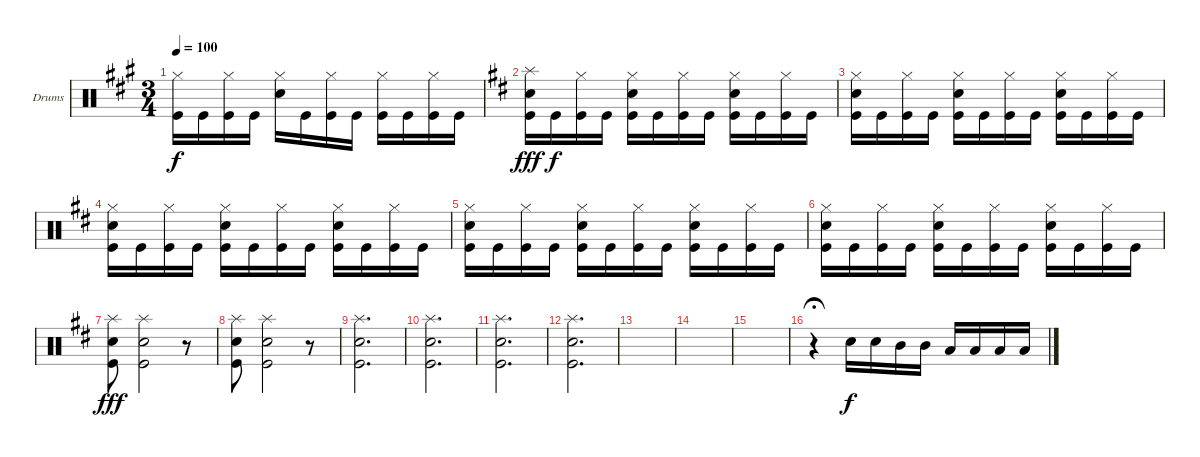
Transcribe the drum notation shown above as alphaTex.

\bracketExtendMode groupsimilarinstruments
\firstSystemTrackNameOrientation horizontal
\otherSystemsTrackNameOrientation horizontal
\track ("Drumkit" "Drums") {instrument percussion}
\staff {score}
\articulation defaults
\ts (3 4)
\tempo 100
\clef neutral
\scale
1.05801
\ks a
("Hi-Hat (closed)" "Kick (hit)").16{dy f} "Kick (hit)".16 ("Hi-Hat (closed)" "Kick (hit)").16 "Kick (hit)".16 ("Hi-Hat (closed)" "Snare (hit) 2").16 "Kick (hit)".16 ("Hi-Hat (closed)" "Kick (hit)").16 "Kick (hit)".16 ("Hi-Hat (closed)" "Kick (hit)").16 "Kick (hit)".16 ("Hi-Hat (closed)" "Kick (hit)").16 "Kick (hit)".16 |
\scale
0.941992
\ks d
("Splash (hit)" "Snare (hit) 2" "Kick (hit)").16{dy fff} "Kick (hit)".16{dy f} ("Hi-Hat (closed)" "Kick (hit)").16 "Kick (hit)".16 ("Hi-Hat (closed)" "Snare (hit) 2" "Kick (hit)").16 "Kick (hit)".16 ("Hi-Hat (closed)" "Kick (hit)").16 "Kick (hit)".16 ("Hi-Hat (closed)" "Snare (hit) 2" "Kick (hit)").16 "Kick (hit)".16 ("Hi-Hat (closed)" "Kick (hit)").16 "Kick (hit)".16 |
\scale
1.05801 ("Hi-Hat (closed)" "Snare (hit) 2" "Kick (hit)").16 "Kick (hit)".16 ("Hi-Hat (closed)" "Kick (hit)").16 "Kick (hit)".16 ("Hi-Hat (closed)" "Snare (hit) 2" "Kick (hit)").16 "Kick (hit)".16 ("Hi-Hat (closed)" "Kick (hit)").16 "Kick (hit)".16 ("Hi-Hat (closed)" "Snare (hit) 2" "Kick (hit)").16 "Kick (hit)".16 ("Hi-Hat (closed)" "Kick (hit)").16 "Kick (hit)".16 |
\scale
0.941992 ("Hi-Hat (closed)" "Snare (hit) 2" "Kick (hit)").16 "Kick (hit)".16 ("Hi-Hat (closed)" "Kick (hit)").16 "Kick (hit)".16 ("Hi-Hat (closed)" "Snare (hit) 2" "Kick (hit)").16 "Kick (hit)".16 ("Hi-Hat (closed)" "Kick (hit)").16 "Kick (hit)".16 ("Hi-Hat (closed)" "Snare (hit) 2" "Kick (hit)").16 "Kick (hit)".16 ("Hi-Hat (closed)" "Kick (hit)").16 "Kick (hit)".16 |
\scale
1.05801 ("Hi-Hat (closed)" "Snare (hit) 2" "Kick (hit)").16 "Kick (hit)".16 ("Hi-Hat (closed)" "Kick (hit)").16 "Kick (hit)".16 ("Hi-Hat (closed)" "Snare (hit) 2" "Kick (hit)").16 "Kick (hit)".16 ("Hi-Hat (closed)" "Kick (hit)").16 "Kick (hit)".16 ("Hi-Hat (closed)" "Snare (hit) 2" "Kick (hit)").16 "Kick (hit)".16 ("Hi-Hat (closed)" "Kick (hit)").16 "Kick (hit)".16 |
\scale
0.941992 ("Hi-Hat (closed)" "Snare (hit) 2" "Kick (hit)").16 "Kick (hit)".16 ("Hi-Hat (closed)" "Kick (hit)").16 "Kick (hit)".16 ("Hi-Hat (closed)" "Snare (hit) 2" "Kick (hit)").16 "Kick (hit)".16 ("Hi-Hat (closed)" "Kick (hit)").16 "Kick (hit)".16 ("Hi-Hat (closed)" "Snare (hit) 2" "Kick (hit)").16 "Kick (hit)".16 ("Hi-Hat (closed)" "Kick (hit)").16 "Kick (hit)".16 |
\scale
1.05801 ("Splash (hit)" "Snare (hit) 2" "Kick (hit)").8{dy fff} ("Splash (hit)" "Snare (hit) 2" "Kick (hit)").2 r.8 |
\scale
0.941992 ("Splash (hit)" "Snare (hit) 2" "Kick (hit)").8 ("Splash (hit)" "Snare (hit) 2" "Kick (hit)").2 r.8 |
\scale
1.05801 ("Splash (hit)" "Snare (hit) 2" "Kick (hit)").2{d} |
\scale
0.941992 ("Splash (hit)" "Snare (hit) 2" "Kick (hit)").2{d} |
\scale
1.05801 ("Splash (hit)" "Snare (hit) 2" "Kick (hit)").2{d} |
\scale
0.941992 ("Splash (hit)" "Snare (hit) 2" "Kick (hit)").2{d} |
\scale
1.08827 |
\scale
0.911728 |
\scale
1.05801 |
\scale
0.941992 r.4{fermata (medium 1)} "Snare (hit) 2".16{dy f} "Snare (hit) 2".16 "Mid Tom (hit)".16 "Mid Tom (hit)".16 "Low Tom (hit)".16 "Low Tom (hit)".16 "Low Tom (hit)".16 "Low Tom (hit)".16
